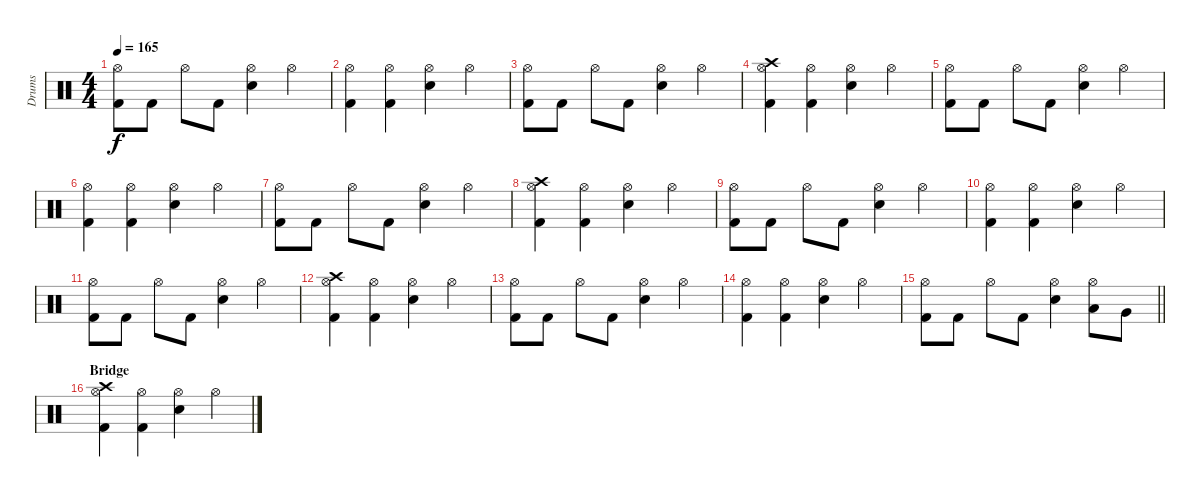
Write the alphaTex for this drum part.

\track ("Drums" "Drums") {instrument percussion}
\staff {score}
\articulation defaults
\ts (4 4)
\tempo 165
\clef neutral
\ks c
("Hi-Hat (open)" "Kick (hit) 2").8{dy f} "Kick (hit) 2".8 "Hi-Hat (open)".8 "Kick (hit) 2".8 ("Hi-Hat (open)" "Snare (hit) 2").4 "Hi-Hat (open)".4 |
("Hi-Hat (open)" "Kick (hit) 2").4 ("Hi-Hat (open)" "Kick (hit) 2").4 ("Hi-Hat (open)" "Snare (hit) 2").4 "Hi-Hat (open)".4 |
("Hi-Hat (open)" "Kick (hit) 2").8 "Kick (hit) 2".8 "Hi-Hat (open)".8 "Kick (hit) 2".8 ("Hi-Hat (open)" "Snare (hit) 2").4 "Hi-Hat (open)".4 |
("Crash high (hit)" "Hi-Hat (open)" "Kick (hit) 2").4 ("Hi-Hat (open)" "Kick (hit) 2").4 ("Hi-Hat (open)" "Snare (hit) 2").4 "Hi-Hat (open)".4 |
("Hi-Hat (open)" "Kick (hit) 2").8 "Kick (hit) 2".8 "Hi-Hat (open)".8 "Kick (hit) 2".8 ("Hi-Hat (open)" "Snare (hit) 2").4 "Hi-Hat (open)".4 |
("Hi-Hat (open)" "Kick (hit) 2").4 ("Hi-Hat (open)" "Kick (hit) 2").4 ("Hi-Hat (open)" "Snare (hit) 2").4 "Hi-Hat (open)".4 |
("Hi-Hat (open)" "Kick (hit) 2").8 "Kick (hit) 2".8 "Hi-Hat (open)".8 "Kick (hit) 2".8 ("Hi-Hat (open)" "Snare (hit) 2").4 "Hi-Hat (open)".4 |
("Crash high (hit)" "Hi-Hat (open)" "Kick (hit) 2").4 ("Hi-Hat (open)" "Kick (hit) 2").4 ("Hi-Hat (open)" "Snare (hit) 2").4 "Hi-Hat (open)".4 |
("Hi-Hat (open)" "Kick (hit) 2").8 "Kick (hit) 2".8 "Hi-Hat (open)".8 "Kick (hit) 2".8 ("Hi-Hat (open)" "Snare (hit) 2").4 "Hi-Hat (open)".4 |
("Hi-Hat (open)" "Kick (hit) 2").4 ("Hi-Hat (open)" "Kick (hit) 2").4 ("Hi-Hat (open)" "Snare (hit) 2").4 "Hi-Hat (open)".4 |
("Hi-Hat (open)" "Kick (hit) 2").8 "Kick (hit) 2".8 "Hi-Hat (open)".8 "Kick (hit) 2".8 ("Hi-Hat (open)" "Snare (hit) 2").4 "Hi-Hat (open)".4 |
("Crash high (hit)" "Hi-Hat (open)" "Kick (hit) 2").4 ("Hi-Hat (open)" "Kick (hit) 2").4 ("Hi-Hat (open)" "Snare (hit) 2").4 "Hi-Hat (open)".4 |
("Hi-Hat (open)" "Kick (hit) 2").8 "Kick (hit) 2".8 "Hi-Hat (open)".8 "Kick (hit) 2".8 ("Hi-Hat (open)" "Snare (hit) 2").4 "Hi-Hat (open)".4 |
("Hi-Hat (open)" "Kick (hit) 2").4 ("Hi-Hat (open)" "Kick (hit) 2").4 ("Hi-Hat (open)" "Snare (hit) 2").4 "Hi-Hat (open)".4 |
\barLineRight lightlight
("Hi-Hat (open)" "Kick (hit) 2").8 "Kick (hit) 2".8 "Hi-Hat (open)".8 "Kick (hit) 2".8 ("Hi-Hat (open)" "Snare (hit) 2").4 ("Hi-Hat (open)" "Low Tom (hit)").8 "Very Low Tom (hit)".8 |
\section ("" "Bridge")
("Crash high (hit)" "Hi-Hat (open)" "Kick (hit) 2").4 ("Hi-Hat (open)" "Kick (hit) 2").4 ("Hi-Hat (open)" "Snare (hit) 2").4 "Hi-Hat (open)".4
